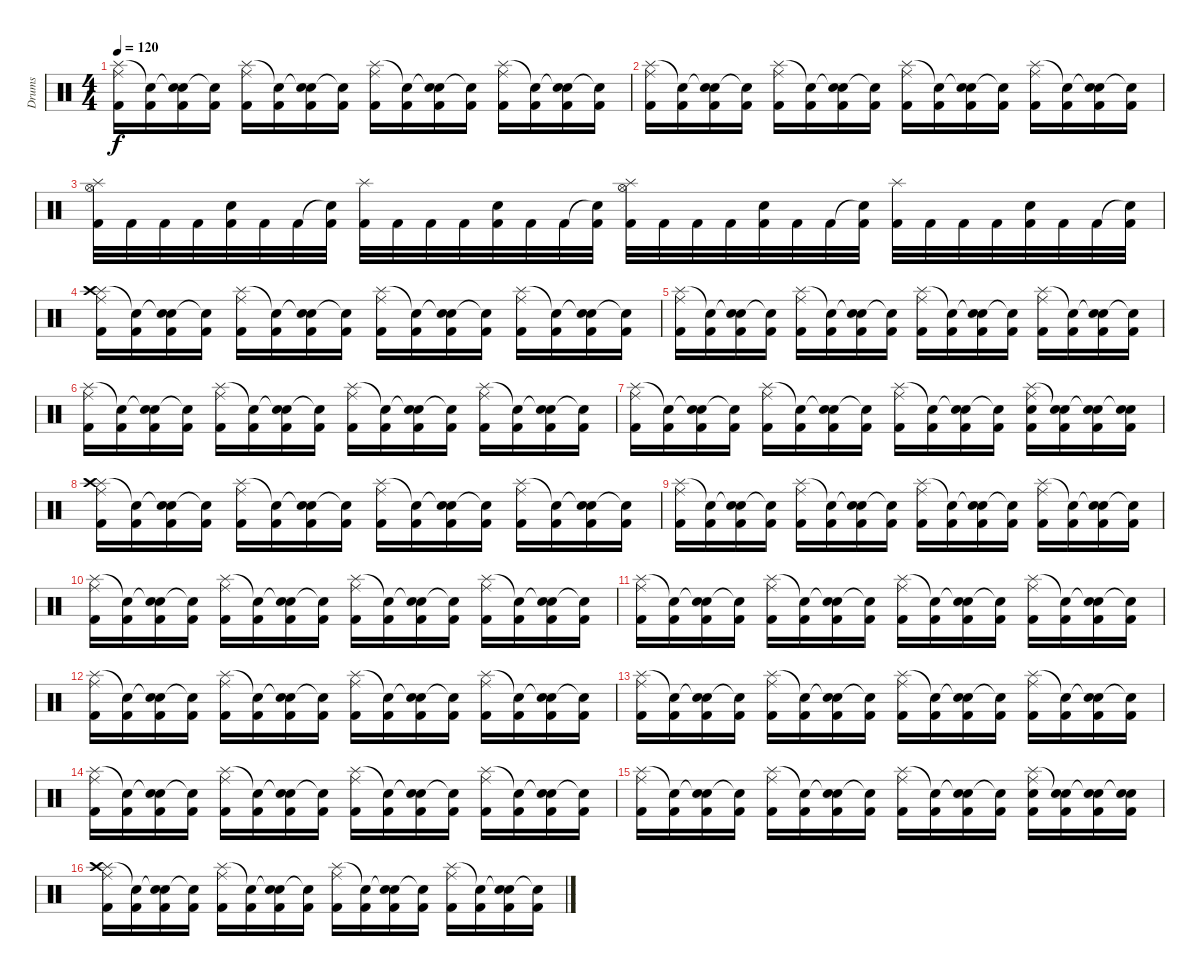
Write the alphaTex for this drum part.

\track ("Drums" "Drums") {instrument percussion}
\staff {score}
\articulation defaults
\ts (4 4)
\tempo 120
\clef neutral
\ks c
("Splash (hit)" "Ride (middle)" "Kick (hit) 2").16{dy f} ("Snare (hit)"{t} "Kick (hit) 2").16 ("Snare (hit)"{t} "Electric Snare (hit)" "Kick (hit) 2").16 ("Snare (hit)"{t} "Kick (hit) 2").16 ("Splash (hit)" "Ride (middle)" "Kick (hit) 2").16 ("Snare (hit)"{t} "Kick (hit) 2").16 ("Snare (hit)"{t} "Electric Snare (hit)" "Kick (hit) 2").16 ("Snare (hit)"{t} "Kick (hit) 2").16 ("Splash (hit)" "Ride (middle)" "Kick (hit) 2").16 ("Snare (hit)"{t} "Kick (hit) 2").16 ("Snare (hit)"{t} "Electric Snare (hit)" "Kick (hit) 2").16 ("Snare (hit)"{t} "Kick (hit) 2").16 ("Splash (hit)" "Ride (middle)" "Kick (hit) 2").16 ("Snare (hit)"{t} "Kick (hit) 2").16 ("Snare (hit)"{t} "Electric Snare (hit)" "Kick (hit) 2").16 ("Snare (hit)"{t} "Kick (hit) 2").16 |
("Splash (hit)" "Ride (middle)" "Kick (hit) 2").16 ("Snare (hit)"{t} "Kick (hit) 2").16 ("Snare (hit)"{t} "Electric Snare (hit)" "Kick (hit) 2").16 ("Snare (hit)"{t} "Kick (hit) 2").16 ("Splash (hit)" "Ride (middle)" "Kick (hit) 2").16 ("Snare (hit)"{t} "Kick (hit) 2").16 ("Snare (hit)"{t} "Electric Snare (hit)" "Kick (hit) 2").16 ("Snare (hit)"{t} "Kick (hit) 2").16 ("Splash (hit)" "Ride (middle)" "Kick (hit) 2").16 ("Snare (hit)"{t} "Kick (hit) 2").16 ("Snare (hit)"{t} "Electric Snare (hit)" "Kick (hit) 2").16 ("Snare (hit)"{t} "Kick (hit) 2").16 ("Splash (hit)" "Ride (middle)" "Kick (hit) 2").16 ("Snare (hit)"{t} "Kick (hit) 2").16 ("Snare (hit)"{t} "Electric Snare (hit)" "Kick (hit) 2").16 ("Snare (hit)"{t} "Kick (hit) 2").16 |
("Splash (hit)" "Hi-Hat (open)" "Kick (hit) 2").32 "Kick (hit) 2".32 "Kick (hit) 2".32 "Kick (hit) 2".32 ("Electric Snare (hit)" "Kick (hit) 2").32 "Kick (hit) 2".32 "Kick (hit) 2".32 ("Snare (hit)"{t} "Kick (hit) 2").32 ("Splash (hit)" "Kick (hit) 2").32 "Kick (hit) 2".32 "Kick (hit) 2".32 "Kick (hit) 2".32 ("Electric Snare (hit)" "Kick (hit) 2").32 "Kick (hit) 2".32 "Kick (hit) 2".32 ("Snare (hit)"{t} "Kick (hit) 2").32 ("Splash (hit)" "Hi-Hat (open)" "Kick (hit) 2").32 "Kick (hit) 2".32 "Kick (hit) 2".32 "Kick (hit) 2".32 ("Electric Snare (hit)" "Kick (hit) 2").32 "Kick (hit) 2".32 "Kick (hit) 2".32 ("Snare (hit)"{t} "Kick (hit) 2").32 ("Splash (hit)" "Kick (hit) 2").32 "Kick (hit) 2".32 "Kick (hit) 2".32 "Kick (hit) 2".32 ("Electric Snare (hit)" "Kick (hit) 2").32 "Kick (hit) 2".32 "Kick (hit) 2".32 ("Snare (hit)"{t} "Kick (hit) 2").32 |
("Splash (hit)" "Ride (middle)" "Kick (hit) 2" "Crash high (hit)").16 ("Snare (hit)"{t} "Kick (hit) 2").16 ("Snare (hit)"{t} "Electric Snare (hit)" "Kick (hit) 2").16 ("Snare (hit)"{t} "Kick (hit) 2").16 ("Splash (hit)" "Ride (middle)" "Kick (hit) 2").16 ("Snare (hit)"{t} "Kick (hit) 2").16 ("Snare (hit)"{t} "Electric Snare (hit)" "Kick (hit) 2").16 ("Snare (hit)"{t} "Kick (hit) 2").16 ("Splash (hit)" "Ride (middle)" "Kick (hit) 2").16 ("Snare (hit)"{t} "Kick (hit) 2").16 ("Snare (hit)"{t} "Electric Snare (hit)" "Kick (hit) 2").16 ("Snare (hit)"{t} "Kick (hit) 2").16 ("Splash (hit)" "Ride (middle)" "Kick (hit) 2").16 ("Snare (hit)"{t} "Kick (hit) 2").16 ("Snare (hit)"{t} "Electric Snare (hit)" "Kick (hit) 2").16 ("Snare (hit)"{t} "Kick (hit) 2").16 |
("Splash (hit)" "Ride (middle)" "Kick (hit) 2").16 ("Snare (hit)"{t} "Kick (hit) 2").16 ("Snare (hit)"{t} "Electric Snare (hit)" "Kick (hit) 2").16 ("Snare (hit)"{t} "Kick (hit) 2").16 ("Splash (hit)" "Ride (middle)" "Kick (hit) 2").16 ("Snare (hit)"{t} "Kick (hit) 2").16 ("Snare (hit)"{t} "Electric Snare (hit)" "Kick (hit) 2").16 ("Snare (hit)"{t} "Kick (hit) 2").16 ("Splash (hit)" "Ride (middle)" "Kick (hit) 2").16 ("Snare (hit)"{t} "Kick (hit) 2").16 ("Snare (hit)"{t} "Electric Snare (hit)" "Kick (hit) 2").16 ("Snare (hit)"{t} "Kick (hit) 2").16 ("Splash (hit)" "Ride (middle)" "Kick (hit) 2").16 ("Snare (hit)"{t} "Kick (hit) 2").16 ("Snare (hit)"{t} "Electric Snare (hit)" "Kick (hit) 2").16 ("Snare (hit)"{t} "Kick (hit) 2").16 |
("Splash (hit)" "Ride (middle)" "Kick (hit) 2").16 ("Snare (hit)"{t} "Kick (hit) 2").16 ("Snare (hit)"{t} "Electric Snare (hit)" "Kick (hit) 2").16 ("Snare (hit)"{t} "Kick (hit) 2").16 ("Splash (hit)" "Ride (middle)" "Kick (hit) 2").16 ("Snare (hit)"{t} "Kick (hit) 2").16 ("Snare (hit)"{t} "Electric Snare (hit)" "Kick (hit) 2").16 ("Snare (hit)"{t} "Kick (hit) 2").16 ("Splash (hit)" "Ride (middle)" "Kick (hit) 2").16 ("Snare (hit)"{t} "Kick (hit) 2").16 ("Snare (hit)"{t} "Electric Snare (hit)" "Kick (hit) 2").16 ("Snare (hit)"{t} "Kick (hit) 2").16 ("Splash (hit)" "Ride (middle)" "Kick (hit) 2").16 ("Snare (hit)"{t} "Kick (hit) 2").16 ("Snare (hit)"{t} "Electric Snare (hit)" "Kick (hit) 2").16 ("Snare (hit)"{t} "Kick (hit) 2").16 |
("Splash (hit)" "Ride (middle)" "Kick (hit) 2").16 ("Snare (hit)"{t} "Kick (hit) 2").16 ("Snare (hit)"{t} "Electric Snare (hit)" "Kick (hit) 2").16 ("Snare (hit)"{t} "Kick (hit) 2").16 ("Splash (hit)" "Ride (middle)" "Kick (hit) 2").16 ("Snare (hit)"{t} "Kick (hit) 2").16 ("Snare (hit)"{t} "Electric Snare (hit)" "Kick (hit) 2").16 ("Snare (hit)"{t} "Kick (hit) 2").16 ("Splash (hit)" "Ride (middle)" "Kick (hit) 2").16 ("Snare (hit)"{t} "Kick (hit) 2").16 ("Snare (hit)"{t} "Electric Snare (hit)" "Kick (hit) 2").16 ("Snare (hit)"{t} "Kick (hit) 2").16 ("Splash (hit)" "Electric Snare (hit)" "Kick (hit) 2" "Ride (middle)").16 ("Snare (hit)"{t} "Electric Snare (hit)" "Kick (hit) 2").16 ("Snare (hit)"{t} "Electric Snare (hit)" "Kick (hit) 2").16 ("Snare (hit)"{t} "Electric Snare (hit)" "Kick (hit) 2").16 |
("Splash (hit)" "Crash high (hit)" "Kick (hit) 2" "Ride (middle)").16 ("Snare (hit)"{t} "Kick (hit) 2").16 ("Snare (hit)"{t} "Electric Snare (hit)" "Kick (hit) 2").16 ("Snare (hit)"{t} "Kick (hit) 2").16 ("Splash (hit)" "Ride (middle)" "Kick (hit) 2").16 ("Snare (hit)"{t} "Kick (hit) 2").16 ("Snare (hit)"{t} "Electric Snare (hit)" "Kick (hit) 2").16 ("Snare (hit)"{t} "Kick (hit) 2").16 ("Splash (hit)" "Ride (middle)" "Kick (hit) 2").16 ("Snare (hit)"{t} "Kick (hit) 2").16 ("Snare (hit)"{t} "Electric Snare (hit)" "Kick (hit) 2").16 ("Snare (hit)"{t} "Kick (hit) 2").16 ("Splash (hit)" "Ride (middle)" "Kick (hit) 2").16 ("Snare (hit)"{t} "Kick (hit) 2").16 ("Snare (hit)"{t} "Electric Snare (hit)" "Kick (hit) 2").16 ("Snare (hit)"{t} "Kick (hit) 2").16 |
("Splash (hit)" "Ride (middle)" "Kick (hit) 2").16 ("Snare (hit)"{t} "Kick (hit) 2").16 ("Snare (hit)"{t} "Electric Snare (hit)" "Kick (hit) 2").16 ("Snare (hit)"{t} "Kick (hit) 2").16 ("Splash (hit)" "Ride (middle)" "Kick (hit) 2").16 ("Snare (hit)"{t} "Kick (hit) 2").16 ("Snare (hit)"{t} "Electric Snare (hit)" "Kick (hit) 2").16 ("Snare (hit)"{t} "Kick (hit) 2").16 ("Splash (hit)" "Ride (middle)" "Kick (hit) 2").16 ("Snare (hit)"{t} "Kick (hit) 2").16 ("Snare (hit)"{t} "Electric Snare (hit)" "Kick (hit) 2").16 ("Snare (hit)"{t} "Kick (hit) 2").16 ("Splash (hit)" "Ride (middle)" "Kick (hit) 2").16 ("Snare (hit)"{t} "Kick (hit) 2").16 ("Snare (hit)"{t} "Electric Snare (hit)" "Kick (hit) 2").16 ("Snare (hit)"{t} "Kick (hit) 2").16 |
("Splash (hit)" "Ride (middle)" "Kick (hit) 2").16 ("Snare (hit)"{t} "Kick (hit) 2").16 ("Snare (hit)"{t} "Electric Snare (hit)" "Kick (hit) 2").16 ("Snare (hit)"{t} "Kick (hit) 2").16 ("Splash (hit)" "Ride (middle)" "Kick (hit) 2").16 ("Snare (hit)"{t} "Kick (hit) 2").16 ("Snare (hit)"{t} "Electric Snare (hit)" "Kick (hit) 2").16 ("Snare (hit)"{t} "Kick (hit) 2").16 ("Splash (hit)" "Ride (middle)" "Kick (hit) 2").16 ("Snare (hit)"{t} "Kick (hit) 2").16 ("Snare (hit)"{t} "Electric Snare (hit)" "Kick (hit) 2").16 ("Snare (hit)"{t} "Kick (hit) 2").16 ("Splash (hit)" "Ride (middle)" "Kick (hit) 2").16 ("Snare (hit)"{t} "Kick (hit) 2").16 ("Snare (hit)"{t} "Electric Snare (hit)" "Kick (hit) 2").16 ("Snare (hit)"{t} "Kick (hit) 2").16 |
("Splash (hit)" "Ride (middle)" "Kick (hit) 2").16 ("Snare (hit)"{t} "Kick (hit) 2").16 ("Snare (hit)"{t} "Electric Snare (hit)" "Kick (hit) 2").16 ("Snare (hit)"{t} "Kick (hit) 2").16 ("Splash (hit)" "Ride (middle)" "Kick (hit) 2").16 ("Snare (hit)"{t} "Kick (hit) 2").16 ("Snare (hit)"{t} "Electric Snare (hit)" "Kick (hit) 2").16 ("Snare (hit)"{t} "Kick (hit) 2").16 ("Splash (hit)" "Ride (middle)" "Kick (hit) 2").16 ("Snare (hit)"{t} "Kick (hit) 2").16 ("Snare (hit)"{t} "Electric Snare (hit)" "Kick (hit) 2").16 ("Snare (hit)"{t} "Kick (hit) 2").16 ("Splash (hit)" "Ride (middle)" "Kick (hit) 2").16 ("Snare (hit)"{t} "Kick (hit) 2").16 ("Snare (hit)"{t} "Electric Snare (hit)" "Kick (hit) 2").16 ("Snare (hit)"{t} "Kick (hit) 2").16 |
("Splash (hit)" "Ride (middle)" "Kick (hit) 2").16 ("Snare (hit)"{t} "Kick (hit) 2").16 ("Snare (hit)"{t} "Electric Snare (hit)" "Kick (hit) 2").16 ("Snare (hit)"{t} "Kick (hit) 2").16 ("Splash (hit)" "Ride (middle)" "Kick (hit) 2").16 ("Snare (hit)"{t} "Kick (hit) 2").16 ("Snare (hit)"{t} "Electric Snare (hit)" "Kick (hit) 2").16 ("Snare (hit)"{t} "Kick (hit) 2").16 ("Splash (hit)" "Ride (middle)" "Kick (hit) 2").16 ("Snare (hit)"{t} "Kick (hit) 2").16 ("Snare (hit)"{t} "Electric Snare (hit)" "Kick (hit) 2").16 ("Snare (hit)"{t} "Kick (hit) 2").16 ("Splash (hit)" "Ride (middle)" "Kick (hit) 2").16 ("Snare (hit)"{t} "Kick (hit) 2").16 ("Snare (hit)"{t} "Electric Snare (hit)" "Kick (hit) 2").16 ("Snare (hit)"{t} "Kick (hit) 2").16 |
("Splash (hit)" "Ride (middle)" "Kick (hit) 2").16 ("Snare (hit)"{t} "Kick (hit) 2").16 ("Snare (hit)"{t} "Electric Snare (hit)" "Kick (hit) 2").16 ("Snare (hit)"{t} "Kick (hit) 2").16 ("Splash (hit)" "Ride (middle)" "Kick (hit) 2").16 ("Snare (hit)"{t} "Kick (hit) 2").16 ("Snare (hit)"{t} "Electric Snare (hit)" "Kick (hit) 2").16 ("Snare (hit)"{t} "Kick (hit) 2").16 ("Splash (hit)" "Ride (middle)" "Kick (hit) 2").16 ("Snare (hit)"{t} "Kick (hit) 2").16 ("Snare (hit)"{t} "Electric Snare (hit)" "Kick (hit) 2").16 ("Snare (hit)"{t} "Kick (hit) 2").16 ("Splash (hit)" "Ride (middle)" "Kick (hit) 2").16 ("Snare (hit)"{t} "Kick (hit) 2").16 ("Snare (hit)"{t} "Electric Snare (hit)" "Kick (hit) 2").16 ("Snare (hit)"{t} "Kick (hit) 2").16 |
("Splash (hit)" "Ride (middle)" "Kick (hit) 2").16 ("Snare (hit)"{t} "Kick (hit) 2").16 ("Snare (hit)"{t} "Electric Snare (hit)" "Kick (hit) 2").16 ("Snare (hit)"{t} "Kick (hit) 2").16 ("Splash (hit)" "Ride (middle)" "Kick (hit) 2").16 ("Snare (hit)"{t} "Kick (hit) 2").16 ("Snare (hit)"{t} "Electric Snare (hit)" "Kick (hit) 2").16 ("Snare (hit)"{t} "Kick (hit) 2").16 ("Splash (hit)" "Ride (middle)" "Kick (hit) 2").16 ("Snare (hit)"{t} "Kick (hit) 2").16 ("Snare (hit)"{t} "Electric Snare (hit)" "Kick (hit) 2").16 ("Snare (hit)"{t} "Kick (hit) 2").16 ("Splash (hit)" "Ride (middle)" "Kick (hit) 2").16 ("Snare (hit)"{t} "Kick (hit) 2").16 ("Snare (hit)"{t} "Electric Snare (hit)" "Kick (hit) 2").16 ("Snare (hit)"{t} "Kick (hit) 2").16 |
("Splash (hit)" "Ride (middle)" "Kick (hit) 2").16 ("Snare (hit)"{t} "Kick (hit) 2").16 ("Snare (hit)"{t} "Electric Snare (hit)" "Kick (hit) 2").16 ("Snare (hit)"{t} "Kick (hit) 2").16 ("Splash (hit)" "Ride (middle)" "Kick (hit) 2").16 ("Snare (hit)"{t} "Kick (hit) 2").16 ("Snare (hit)"{t} "Electric Snare (hit)" "Kick (hit) 2").16 ("Snare (hit)"{t} "Kick (hit) 2").16 ("Splash (hit)" "Ride (middle)" "Kick (hit) 2").16 ("Snare (hit)"{t} "Kick (hit) 2").16 ("Snare (hit)"{t} "Electric Snare (hit)" "Kick (hit) 2").16 ("Snare (hit)"{t} "Kick (hit) 2").16 ("Splash (hit)" "Electric Snare (hit)" "Kick (hit) 2" "Ride (middle)").16 ("Snare (hit)"{t} "Electric Snare (hit)" "Kick (hit) 2").16 ("Snare (hit)"{t} "Electric Snare (hit)" "Kick (hit) 2").16 ("Snare (hit)"{t} "Electric Snare (hit)" "Kick (hit) 2").16 |
("Splash (hit)" "Crash high (hit)" "Kick (hit) 2" "Ride (middle)").16 ("Snare (hit)"{t} "Kick (hit) 2").16 ("Snare (hit)"{t} "Electric Snare (hit)" "Kick (hit) 2").16 ("Snare (hit)"{t} "Kick (hit) 2").16 ("Splash (hit)" "Ride (middle)" "Kick (hit) 2").16 ("Snare (hit)"{t} "Kick (hit) 2").16 ("Snare (hit)"{t} "Electric Snare (hit)" "Kick (hit) 2").16 ("Snare (hit)"{t} "Kick (hit) 2").16 ("Splash (hit)" "Ride (middle)" "Kick (hit) 2").16 ("Snare (hit)"{t} "Kick (hit) 2").16 ("Snare (hit)"{t} "Electric Snare (hit)" "Kick (hit) 2").16 ("Snare (hit)"{t} "Kick (hit) 2").16 ("Splash (hit)" "Ride (middle)" "Kick (hit) 2").16 ("Snare (hit)"{t} "Kick (hit) 2").16 ("Snare (hit)"{t} "Electric Snare (hit)" "Kick (hit) 2").16 ("Snare (hit)"{t} "Kick (hit) 2").16
